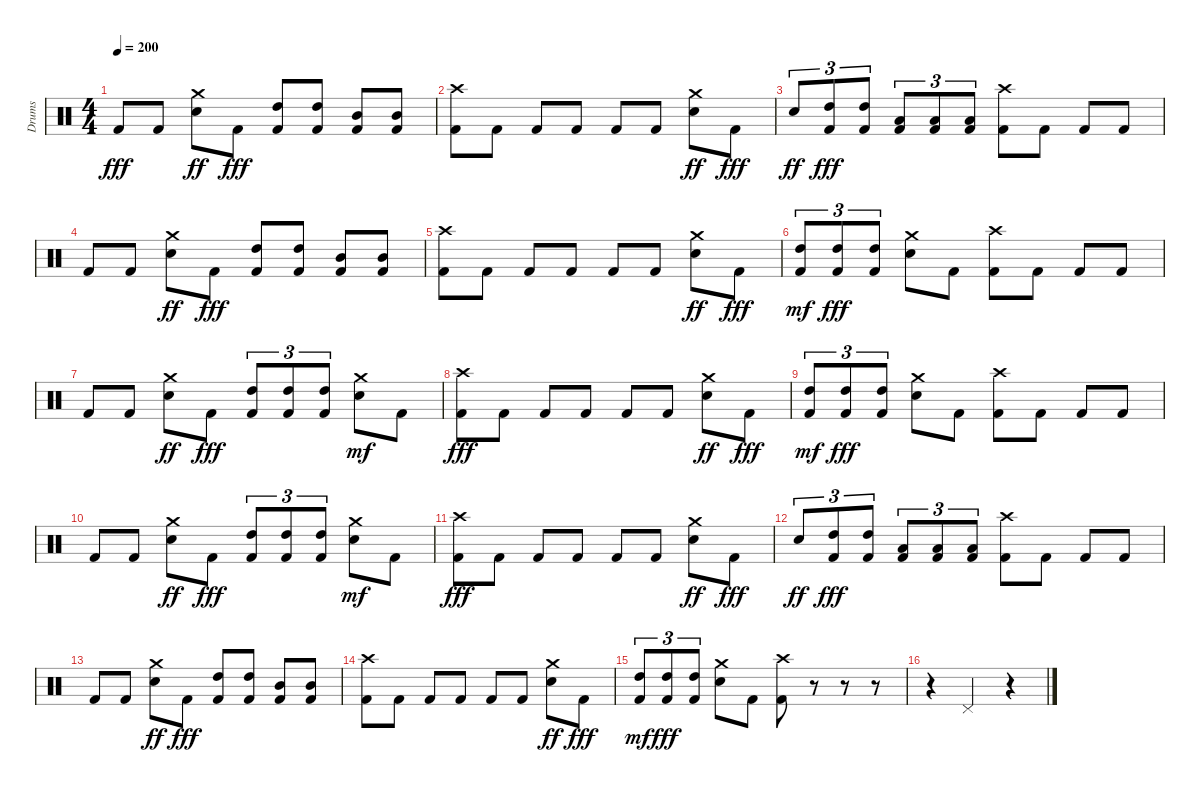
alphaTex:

\track ("Drums" "Drums") {instrument percussion}
\staff {score}
\articulation defaults
\ts (4 4)
\tempo 200
\clef neutral
\ks c "Kick (hit) 2".8{dy fff} "Kick (hit) 2".8
("Crash medium (hit)" "Electric Snare (hit)").8{dy ff} "Kick (hit) 2".8{dy fff} ("High Tom (hit)" "Kick (hit) 2").8 ("High Tom (hit)" "Kick (hit) 2").8 ("Mid Tom (hit)" "Kick (hit) 2").8 ("Mid Tom (hit)" "Kick (hit) 2").8 |
("Crash high (hit)" "Kick (hit) 2").8 "Kick (hit) 2".8 "Kick (hit) 2".8 "Kick (hit) 2".8 "Kick (hit) 2".8 "Kick (hit) 2".8 ("Crash medium (hit)" "Electric Snare (hit)").8{dy ff} "Kick (hit) 2".8{dy fff} |
"Electric Snare (hit)".8{tu (3 2) dy ff} ("High Tom (hit)" "Kick (hit) 2").8{tu (3 2) dy fff} ("High Tom (hit)" "Kick (hit) 2").8{tu (3 2)} ("Low Tom (hit)" "Kick (hit) 2").8{tu (3 2)} ("Low Tom (hit)" "Kick (hit) 2").8{tu (3 2)} ("Low Tom (hit)" "Kick (hit) 2").8{tu (3 2)} ("Crash high (hit)" "Kick (hit) 2").8 "Kick (hit) 2".8 "Kick (hit) 2".8 "Kick (hit) 2".8 |
"Kick (hit) 2".8 "Kick (hit) 2".8 ("Crash medium (hit)" "Electric Snare (hit)").8{dy ff} "Kick (hit) 2".8{dy fff} ("High Tom (hit)" "Kick (hit) 2").8 ("High Tom (hit)" "Kick (hit) 2").8 ("Mid Tom (hit)" "Kick (hit) 2").8 ("Mid Tom (hit)" "Kick (hit) 2").8 |
("Crash high (hit)" "Kick (hit) 2").8 "Kick (hit) 2".8 "Kick (hit) 2".8 "Kick (hit) 2".8 "Kick (hit) 2".8 "Kick (hit) 2".8 ("Crash medium (hit)" "Electric Snare (hit)").8{dy ff} "Kick (hit) 2".8{dy fff} |
("High Tom (hit)" "Kick (hit) 2").8{tu (3 2) dy mf} ("High Tom (hit)" "Kick (hit) 2").8{tu (3 2) dy fff} ("High Tom (hit)" "Kick (hit) 2").8{tu (3 2)} ("Crash medium (hit)" "Electric Snare (hit)").8 "Kick (hit) 2".8 ("Crash high (hit)" "Kick (hit) 2").8 "Kick (hit) 2".8 "Kick (hit) 2".8 "Kick (hit) 2".8 |
"Kick (hit) 2".8 "Kick (hit) 2".8 ("Crash medium (hit)" "Electric Snare (hit)").8{dy ff} "Kick (hit) 2".8{dy fff} ("High Tom (hit)" "Kick (hit) 2").8{tu (3 2)} ("High Tom (hit)" "Kick (hit) 2").8{tu (3 2)} ("High Tom (hit)" "Kick (hit) 2").8{tu (3 2)} ("Crash medium (hit)" "Electric Snare (hit)").8{dy mf} "Kick (hit) 2".8 |
("Crash high (hit)" "Kick (hit) 2").8{dy fff} "Kick (hit) 2".8 "Kick (hit) 2".8 "Kick (hit) 2".8 "Kick (hit) 2".8 "Kick (hit) 2".8 ("Crash medium (hit)" "Electric Snare (hit)").8{dy ff} "Kick (hit) 2".8{dy fff} |
("High Tom (hit)" "Kick (hit) 2").8{tu (3 2) dy mf} ("High Tom (hit)" "Kick (hit) 2").8{tu (3 2) dy fff} ("High Tom (hit)" "Kick (hit) 2").8{tu (3 2)} ("Crash medium (hit)" "Electric Snare (hit)").8 "Kick (hit) 2".8 ("Crash high (hit)" "Kick (hit) 2").8 "Kick (hit) 2".8 "Kick (hit) 2".8 "Kick (hit) 2".8 |
"Kick (hit) 2".8 "Kick (hit) 2".8 ("Crash medium (hit)" "Electric Snare (hit)").8{dy ff} "Kick (hit) 2".8{dy fff} ("High Tom (hit)" "Kick (hit) 2").8{tu (3 2)} ("High Tom (hit)" "Kick (hit) 2").8{tu (3 2)} ("High Tom (hit)" "Kick (hit) 2").8{tu (3 2)} ("Crash medium (hit)" "Electric Snare (hit)").8{dy mf} "Kick (hit) 2".8 |
("Crash high (hit)" "Kick (hit) 2").8{dy fff} "Kick (hit) 2".8 "Kick (hit) 2".8 "Kick (hit) 2".8 "Kick (hit) 2".8 "Kick (hit) 2".8 ("Crash medium (hit)" "Electric Snare (hit)").8{dy ff} "Kick (hit) 2".8{dy fff} |
"Electric Snare (hit)".8{tu (3 2) dy ff} ("High Tom (hit)" "Kick (hit) 2").8{tu (3 2) dy fff} ("High Tom (hit)" "Kick (hit) 2").8{tu (3 2)} ("Low Tom (hit)" "Kick (hit) 2").8{tu (3 2)} ("Low Tom (hit)" "Kick (hit) 2").8{tu (3 2)} ("Low Tom (hit)" "Kick (hit) 2").8{tu (3 2)} ("Crash high (hit)" "Kick (hit) 2").8 "Kick (hit) 2".8 "Kick (hit) 2".8 "Kick (hit) 2".8 |
"Kick (hit) 2".8 "Kick (hit) 2".8 ("Crash medium (hit)" "Electric Snare (hit)").8{dy ff} "Kick (hit) 2".8{dy fff} ("High Tom (hit)" "Kick (hit) 2").8 ("High Tom (hit)" "Kick (hit) 2").8 ("Mid Tom (hit)" "Kick (hit) 2").8 ("Mid Tom (hit)" "Kick (hit) 2").8 |
("Crash high (hit)" "Kick (hit) 2").8 "Kick (hit) 2".8 "Kick (hit) 2".8 "Kick (hit) 2".8 "Kick (hit) 2".8 "Kick (hit) 2".8 ("Crash medium (hit)" "Electric Snare (hit)").8{dy ff} "Kick (hit) 2".8{dy fff} |
("High Tom (hit)" "Kick (hit) 2").8{tu (3 2) dy mf} ("High Tom (hit)" "Kick (hit) 2").8{tu (3 2) dy fff} ("High Tom (hit)" "Kick (hit) 2").8{tu (3 2)} ("Crash medium (hit)" "Electric Snare (hit)").8 "Kick (hit) 2".8 ("Crash high (hit)" "Kick (hit) 2").8 r.8 r.8 r.8 |
r.4 "Pedal Hi-Hat (hit)".2 r.4
